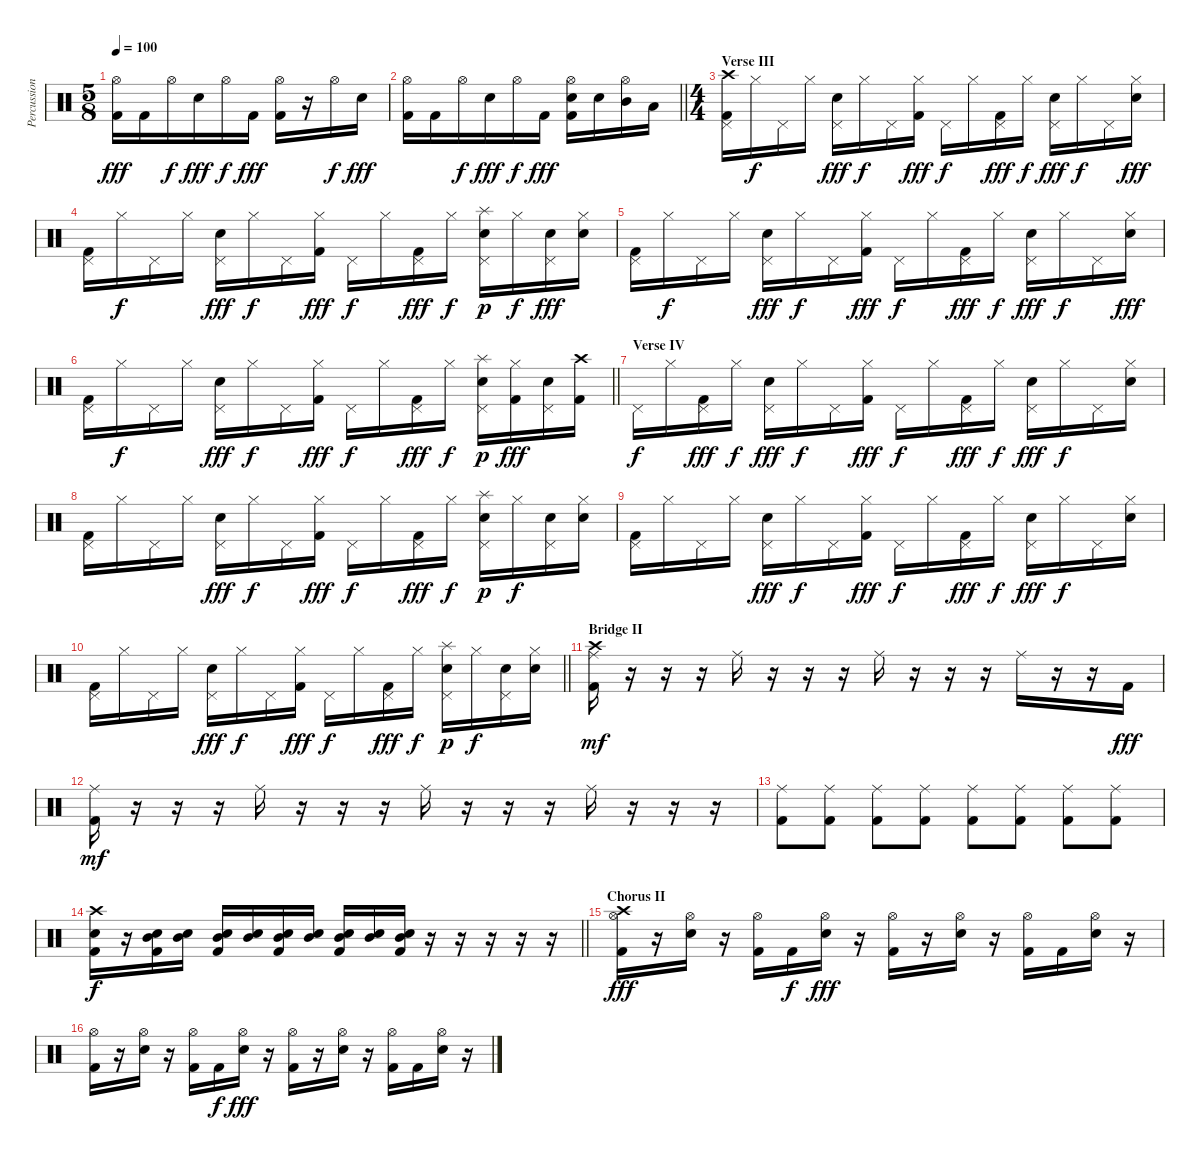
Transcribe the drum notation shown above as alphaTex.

\track ("Percussion" "Percussion") {instrument percussion}
\staff
\articulation defaults
\ts (5 8)
\tempo 100
\clef neutral
\ks c
("Kick (hit) 2" "Hi-Hat (open)").16{dy fff} "Kick (hit) 2".16 "Hi-Hat (open)".16{dy f} "Electric Snare (hit)".16{dy fff} "Hi-Hat (open)".16{dy f} "Kick (hit) 2".16{dy fff} ("Kick (hit) 2" "Hi-Hat (open)").16 r.16 "Hi-Hat (open)".16{dy f} "Electric Snare (hit)".16{dy fff} |
\barLineRight lightlight
("Kick (hit) 2" "Hi-Hat (open)").16 "Kick (hit) 2".16 "Hi-Hat (open)".16{dy f} "Electric Snare (hit)".16{dy fff} "Hi-Hat (open)".16{dy f} "Kick (hit) 2".16{dy fff} ("Kick (hit) 2" "Electric Snare (hit)" "Hi-Hat (open)").16 "Electric Snare (hit)".16 ("Mid Tom (hit)" "Hi-Hat (open)").16 "Low Tom (hit)".16 |
\ts (4 4)
\section ("" "Verse III")
("Kick (hit) 2" "Pedal Hi-Hat (hit)" "Crash high (hit)").16 "Hi-Hat (closed)".16{dy f} "Pedal Hi-Hat (hit)".16 "Hi-Hat (closed)".16 ("Electric Snare (hit)" "Pedal Hi-Hat (hit)").16{dy fff} "Hi-Hat (closed)".16{dy f} "Pedal Hi-Hat (hit)".16 ("Kick (hit) 2" "Hi-Hat (closed)").16{dy fff} "Pedal Hi-Hat (hit)".16{dy f} "Hi-Hat (closed)".16 ("Kick (hit) 2" "Pedal Hi-Hat (hit)").16{dy fff} "Hi-Hat (closed)".16{dy f} ("Electric Snare (hit)" "Pedal Hi-Hat (hit)").16{dy fff} "Hi-Hat (closed)".16{dy f} "Pedal Hi-Hat (hit)".16 ("Electric Snare (hit)" "Hi-Hat (closed)").16{dy fff} |
("Kick (hit) 2" "Pedal Hi-Hat (hit)").16 "Hi-Hat (closed)".16{dy f} "Pedal Hi-Hat (hit)".16 "Hi-Hat (closed)".16 ("Electric Snare (hit)" "Pedal Hi-Hat (hit)").16{dy fff} "Hi-Hat (closed)".16{dy f} "Pedal Hi-Hat (hit)".16 ("Kick (hit) 2" "Hi-Hat (closed)").16{dy fff} "Pedal Hi-Hat (hit)".16{dy f} "Hi-Hat (closed)".16 ("Kick (hit) 2" "Pedal Hi-Hat (hit)").16{dy fff} "Hi-Hat (closed)".16{dy f} ("Electric Snare (hit)" "Pedal Hi-Hat (hit)" "Splash (hit)").16{dy p} "Hi-Hat (closed)".16{dy f} ("Electric Snare (hit)" "Pedal Hi-Hat (hit)").16{dy fff} ("Electric Snare (hit)" "Hi-Hat (closed)").16 |
("Kick (hit) 2" "Pedal Hi-Hat (hit)").16 "Hi-Hat (closed)".16{dy f} "Pedal Hi-Hat (hit)".16 "Hi-Hat (closed)".16 ("Electric Snare (hit)" "Pedal Hi-Hat (hit)").16{dy fff} "Hi-Hat (closed)".16{dy f} "Pedal Hi-Hat (hit)".16 ("Kick (hit) 2" "Hi-Hat (closed)").16{dy fff} "Pedal Hi-Hat (hit)".16{dy f} "Hi-Hat (closed)".16 ("Kick (hit) 2" "Pedal Hi-Hat (hit)").16{dy fff} "Hi-Hat (closed)".16{dy f} ("Electric Snare (hit)" "Pedal Hi-Hat (hit)").16{dy fff} "Hi-Hat (closed)".16{dy f} "Pedal Hi-Hat (hit)".16 ("Electric Snare (hit)" "Hi-Hat (closed)").16{dy fff} |
\barLineRight lightlight
("Kick (hit) 2" "Pedal Hi-Hat (hit)").16 "Hi-Hat (closed)".16{dy f} "Pedal Hi-Hat (hit)".16 "Hi-Hat (closed)".16 ("Electric Snare (hit)" "Pedal Hi-Hat (hit)").16{dy fff} "Hi-Hat (closed)".16{dy f} "Pedal Hi-Hat (hit)".16 ("Kick (hit) 2" "Hi-Hat (closed)").16{dy fff} "Pedal Hi-Hat (hit)".16{dy f} "Hi-Hat (closed)".16 ("Kick (hit) 2" "Pedal Hi-Hat (hit)").16{dy fff} "Hi-Hat (closed)".16{dy f} ("Electric Snare (hit)" "Pedal Hi-Hat (hit)" "Splash (hit)").16{dy p} ("Kick (hit) 2" "Hi-Hat (closed)").16{dy fff} ("Electric Snare (hit)" "Pedal Hi-Hat (hit)").16 ("Kick (hit) 2" "Crash high (hit)").16 |
\section ("" "Verse IV")
"Pedal Hi-Hat (hit)".16{dy f} "Hi-Hat (closed)".16 ("Kick (hit) 2" "Pedal Hi-Hat (hit)").16{dy fff} "Hi-Hat (closed)".16{dy f} ("Electric Snare (hit)" "Pedal Hi-Hat (hit)").16{dy fff} "Hi-Hat (closed)".16{dy f} "Pedal Hi-Hat (hit)".16 ("Kick (hit) 2" "Hi-Hat (closed)").16{dy fff} "Pedal Hi-Hat (hit)".16{dy f} "Hi-Hat (closed)".16 ("Kick (hit) 2" "Pedal Hi-Hat (hit)").16{dy fff} "Hi-Hat (closed)".16{dy f} ("Electric Snare (hit)" "Pedal Hi-Hat (hit)").16{dy fff} "Hi-Hat (closed)".16{dy f} "Pedal Hi-Hat (hit)".16 ("Electric Snare (hit)" "Hi-Hat (closed)").16 |
("Kick (hit) 2" "Pedal Hi-Hat (hit)").16 "Hi-Hat (closed)".16 "Pedal Hi-Hat (hit)".16 "Hi-Hat (closed)".16 ("Electric Snare (hit)" "Pedal Hi-Hat (hit)").16{dy fff} "Hi-Hat (closed)".16{dy f} "Pedal Hi-Hat (hit)".16 ("Kick (hit) 2" "Hi-Hat (closed)").16{dy fff} "Pedal Hi-Hat (hit)".16{dy f} "Hi-Hat (closed)".16 ("Kick (hit) 2" "Pedal Hi-Hat (hit)").16{dy fff} "Hi-Hat (closed)".16{dy f} ("Electric Snare (hit)" "Pedal Hi-Hat (hit)" "Splash (hit)").16{dy p} "Hi-Hat (closed)".16{dy f} ("Electric Snare (hit)" "Pedal Hi-Hat (hit)").16 ("Electric Snare (hit)" "Hi-Hat (closed)").16 |
("Kick (hit) 2" "Pedal Hi-Hat (hit)").16 "Hi-Hat (closed)".16 "Pedal Hi-Hat (hit)".16 "Hi-Hat (closed)".16 ("Electric Snare (hit)" "Pedal Hi-Hat (hit)").16{dy fff} "Hi-Hat (closed)".16{dy f} "Pedal Hi-Hat (hit)".16 ("Kick (hit) 2" "Hi-Hat (closed)").16{dy fff} "Pedal Hi-Hat (hit)".16{dy f} "Hi-Hat (closed)".16 ("Kick (hit) 2" "Pedal Hi-Hat (hit)").16{dy fff} "Hi-Hat (closed)".16{dy f} ("Electric Snare (hit)" "Pedal Hi-Hat (hit)").16{dy fff} "Hi-Hat (closed)".16{dy f} "Pedal Hi-Hat (hit)".16 ("Electric Snare (hit)" "Hi-Hat (closed)").16 |
\barLineRight lightlight
("Kick (hit) 2" "Pedal Hi-Hat (hit)").16 "Hi-Hat (closed)".16 "Pedal Hi-Hat (hit)".16 "Hi-Hat (closed)".16 ("Electric Snare (hit)" "Pedal Hi-Hat (hit)").16{dy fff} "Hi-Hat (closed)".16{dy f} "Pedal Hi-Hat (hit)".16 ("Kick (hit) 2" "Hi-Hat (closed)").16{dy fff} "Pedal Hi-Hat (hit)".16{dy f} "Hi-Hat (closed)".16 ("Kick (hit) 2" "Pedal Hi-Hat (hit)").16{dy fff} "Hi-Hat (closed)".16{dy f} ("Electric Snare (hit)" "Pedal Hi-Hat (hit)" "Splash (hit)").16{dy p} "Hi-Hat (closed)".16{dy f} ("Electric Snare (hit)" "Pedal Hi-Hat (hit)").16 ("Electric Snare (hit)" "Hi-Hat (closed)").16 |
\section ("" "Bridge II")
("Kick (hit) 2" "Crash high (hit)" "Ride (middle)").16{dy mf} r.16 r.16 r.16 "Ride (middle)".16 r.16 r.16 r.16 "Ride (middle)".16 r.16 r.16 r.16 "Ride (middle)".16 r.16 r.16 "Kick (hit) 2".16{dy fff} |
("Kick (hit) 2" "Ride (middle)").16{dy mf} r.16 r.16 r.16 "Ride (middle)".16 r.16 r.16 r.16 "Ride (middle)".16 r.16 r.16 r.16 "Ride (middle)".16 r.16 r.16 r.16 |
("Kick (hit) 2" "Ride (middle)").8 ("Kick (hit) 2" "Ride (middle)").8 ("Kick (hit) 2" "Ride (middle)").8 ("Kick (hit) 2" "Ride (middle)").8 ("Kick (hit) 2" "Ride (middle)").8 ("Kick (hit) 2" "Ride (middle)").8 ("Kick (hit) 2" "Ride (middle)").8 ("Kick (hit) 2" "Ride (middle)").8 |
\barLineRight lightlight
("Kick (hit) 2" "Electric Snare (hit)" "Crash high (hit)").16{dy f} r.16 ("Kick (hit) 2" "Electric Snare (hit)" "Mid Tom (hit)").16 ("Electric Snare (hit)" "Mid Tom (hit)").16 ("Kick (hit) 2" "Electric Snare (hit)" "Mid Tom (hit)").16 ("Electric Snare (hit)" "Mid Tom (hit)").16 ("Kick (hit) 2" "Electric Snare (hit)" "Mid Tom (hit)").16 ("Electric Snare (hit)" "Mid Tom (hit)").16 ("Kick (hit) 2" "Electric Snare (hit)" "Mid Tom (hit)").16 ("Electric Snare (hit)" "Mid Tom (hit)").16 ("Kick (hit) 2" "Electric Snare (hit)" "Mid Tom (hit)").16 r.16 r.16 r.16 r.16 r.16 |
\section ("" "Chorus II")
("Kick (hit) 2" "Hi-Hat (open)" "Crash high (hit)").16{dy fff} r.16 ("Electric Snare (hit)" "Hi-Hat (open)").16 r.16 ("Kick (hit) 2" "Hi-Hat (open)").16 "Kick (hit) 2".16{dy f} ("Electric Snare (hit)" "Hi-Hat (open)").16{dy fff} r.16 ("Kick (hit) 2" "Hi-Hat (open)").16 r.16 ("Electric Snare (hit)" "Hi-Hat (open)").16 r.16 ("Kick (hit) 2" "Hi-Hat (open)").16 "Kick (hit) 2".16 ("Electric Snare (hit)" "Hi-Hat (open)").16 r.16 |
("Kick (hit) 2" "Hi-Hat (open)").16 r.16 ("Electric Snare (hit)" "Hi-Hat (open)").16 r.16 ("Kick (hit) 2" "Hi-Hat (open)").16 "Kick (hit) 2".16{dy f} ("Electric Snare (hit)" "Hi-Hat (open)").16{dy fff} r.16 ("Kick (hit) 2" "Hi-Hat (open)").16 r.16 ("Electric Snare (hit)" "Hi-Hat (open)").16 r.16 ("Kick (hit) 2" "Hi-Hat (open)").16 "Kick (hit) 2".16 ("Electric Snare (hit)" "Hi-Hat (open)").16 r.16
